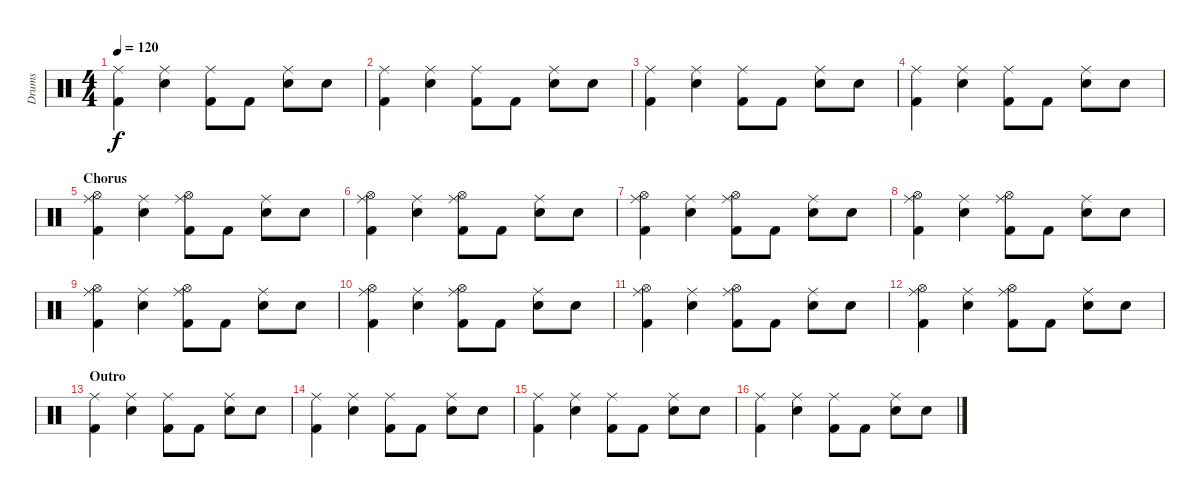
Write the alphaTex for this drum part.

\track ("Drums" "Drums") {instrument percussion}
\staff {score}
\articulation defaults
\ts (4 4)
\tempo 120
\clef neutral
\ks c
("Ride (middle)" "Kick (hit) 2").4{dy f} ("Ride (middle)" "Snare (hit) 2").4 ("Ride (middle)" "Kick (hit) 2").8 "Kick (hit) 2".8 ("Ride (middle)" "Snare (hit) 2").8 "Snare (hit) 2".8 |
("Ride (middle)" "Kick (hit) 2").4 ("Ride (middle)" "Snare (hit) 2").4 ("Ride (middle)" "Kick (hit) 2").8 "Kick (hit) 2".8 ("Ride (middle)" "Snare (hit) 2").8 "Snare (hit) 2".8 |
("Ride (middle)" "Kick (hit) 2").4 ("Ride (middle)" "Snare (hit) 2").4 ("Ride (middle)" "Kick (hit) 2").8 "Kick (hit) 2".8 ("Ride (middle)" "Snare (hit) 2").8 "Snare (hit) 2".8 |
("Ride (middle)" "Kick (hit) 2").4 ("Ride (middle)" "Snare (hit) 2").4 ("Ride (middle)" "Kick (hit) 2").8 "Kick (hit) 2".8 ("Ride (middle)" "Snare (hit) 2").8 "Snare (hit) 2".8 |
\section ("" "Chorus")
("Ride (middle)" "Kick (hit) 2" "Hi-Hat (open)").4 ("Ride (middle)" "Snare (hit) 2").4 ("Ride (middle)" "Kick (hit) 2" "Hi-Hat (open)").8 "Kick (hit) 2".8 ("Ride (middle)" "Snare (hit) 2").8 "Snare (hit) 2".8 |
("Ride (middle)" "Kick (hit) 2" "Hi-Hat (open)").4 ("Ride (middle)" "Snare (hit) 2").4 ("Ride (middle)" "Kick (hit) 2" "Hi-Hat (open)").8 "Kick (hit) 2".8 ("Ride (middle)" "Snare (hit) 2").8 "Snare (hit) 2".8 |
("Ride (middle)" "Kick (hit) 2" "Hi-Hat (open)").4 ("Ride (middle)" "Snare (hit) 2").4 ("Ride (middle)" "Kick (hit) 2" "Hi-Hat (open)").8 "Kick (hit) 2".8 ("Ride (middle)" "Snare (hit) 2").8 "Snare (hit) 2".8 |
("Ride (middle)" "Kick (hit) 2" "Hi-Hat (open)").4 ("Ride (middle)" "Snare (hit) 2").4 ("Ride (middle)" "Kick (hit) 2" "Hi-Hat (open)").8 "Kick (hit) 2".8 ("Ride (middle)" "Snare (hit) 2").8 "Snare (hit) 2".8 |
("Ride (middle)" "Kick (hit) 2" "Hi-Hat (open)").4 ("Ride (middle)" "Snare (hit) 2").4 ("Ride (middle)" "Kick (hit) 2" "Hi-Hat (open)").8 "Kick (hit) 2".8 ("Ride (middle)" "Snare (hit) 2").8 "Snare (hit) 2".8 |
("Ride (middle)" "Kick (hit) 2" "Hi-Hat (open)").4 ("Ride (middle)" "Snare (hit) 2").4 ("Ride (middle)" "Kick (hit) 2" "Hi-Hat (open)").8 "Kick (hit) 2".8 ("Ride (middle)" "Snare (hit) 2").8 "Snare (hit) 2".8 |
("Ride (middle)" "Kick (hit) 2" "Hi-Hat (open)").4 ("Ride (middle)" "Snare (hit) 2").4 ("Ride (middle)" "Kick (hit) 2" "Hi-Hat (open)").8 "Kick (hit) 2".8 ("Ride (middle)" "Snare (hit) 2").8 "Snare (hit) 2".8 |
("Ride (middle)" "Kick (hit) 2" "Hi-Hat (open)").4 ("Ride (middle)" "Snare (hit) 2").4 ("Ride (middle)" "Kick (hit) 2" "Hi-Hat (open)").8 "Kick (hit) 2".8 ("Ride (middle)" "Snare (hit) 2").8 "Snare (hit) 2".8 |
\section ("" "Outro")
("Ride (middle)" "Kick (hit) 2").4 ("Ride (middle)" "Snare (hit) 2").4 ("Ride (middle)" "Kick (hit) 2").8 "Kick (hit) 2".8 ("Ride (middle)" "Snare (hit) 2").8 "Snare (hit) 2".8 |
("Ride (middle)" "Kick (hit) 2").4 ("Ride (middle)" "Snare (hit) 2").4 ("Ride (middle)" "Kick (hit) 2").8 "Kick (hit) 2".8 ("Ride (middle)" "Snare (hit) 2").8 "Snare (hit) 2".8 |
("Ride (middle)" "Kick (hit) 2").4 ("Ride (middle)" "Snare (hit) 2").4 ("Ride (middle)" "Kick (hit) 2").8 "Kick (hit) 2".8 ("Ride (middle)" "Snare (hit) 2").8 "Snare (hit) 2".8 |
("Ride (middle)" "Kick (hit) 2").4 ("Ride (middle)" "Snare (hit) 2").4 ("Ride (middle)" "Kick (hit) 2").8 "Kick (hit) 2".8 ("Ride (middle)" "Snare (hit) 2").8 "Snare (hit) 2".8
